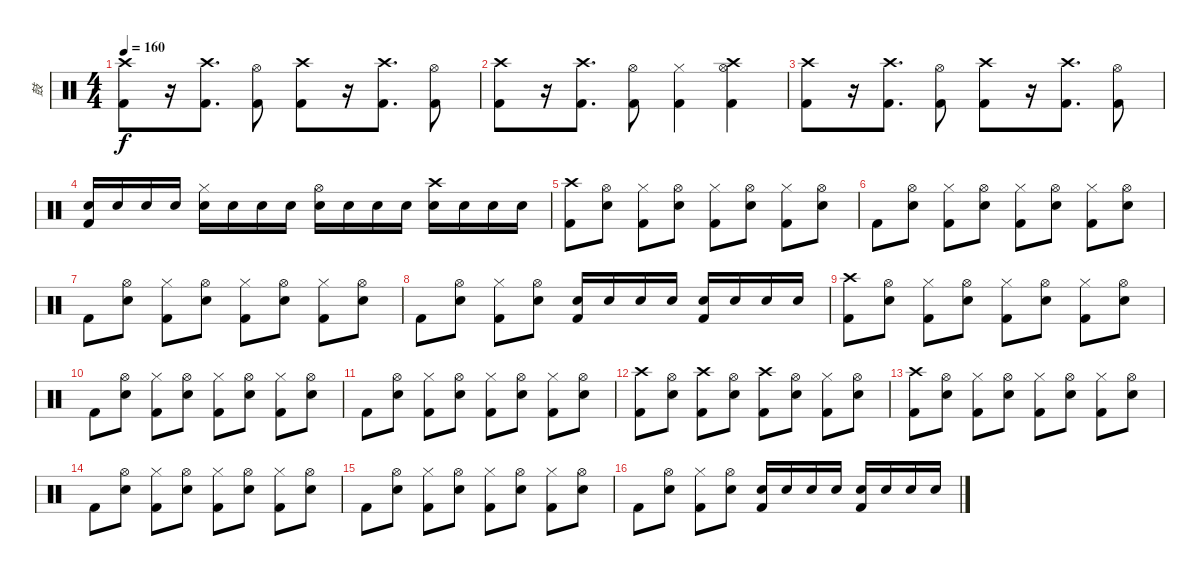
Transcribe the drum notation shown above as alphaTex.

\track ("鼓" "鼓") {instrument percussion}
\staff {score}
\articulation defaults
\ts (4 4)
\tempo 160
\clef neutral
\ks c
("Crash high (hit)" "Kick (hit) 2").8{dy f} r.16 ("Crash high (hit)" "Kick (hit) 2").8{d} ("Hi-Hat (open)" "Kick (hit) 2").8 ("Crash high (hit)" "Kick (hit) 2").8 r.16 ("Crash high (hit)" "Kick (hit) 2").8{d} ("Hi-Hat (open)" "Kick (hit) 2").8 |
("Crash high (hit)" "Kick (hit) 2").8 r.16 ("Crash high (hit)" "Kick (hit) 2").8{d} ("Hi-Hat (open)" "Kick (hit) 2").8 ("Hi-Hat (closed)" "Kick (hit) 2").4 ("Crash high (hit)" "Hi-Hat (open)" "Kick (hit) 2").4 |
("Crash high (hit)" "Kick (hit) 2").8 r.16 ("Crash high (hit)" "Kick (hit) 2").8{d} ("Hi-Hat (open)" "Kick (hit) 2").8 ("Crash high (hit)" "Kick (hit) 2").8 r.16 ("Crash high (hit)" "Kick (hit) 2").8{d} ("Hi-Hat (open)" "Kick (hit) 2").8 |
("Electric Snare (hit)" "Kick (hit) 2").16 "Electric Snare (hit)".16 "Electric Snare (hit)".16 "Electric Snare (hit)".16 ("Hi-Hat (closed)" "Electric Snare (hit)").16 "Electric Snare (hit)".16 "Electric Snare (hit)".16 "Electric Snare (hit)".16 ("Hi-Hat (open)" "Electric Snare (hit)").16 "Electric Snare (hit)".16 "Electric Snare (hit)".16 "Electric Snare (hit)".16 ("Crash high (hit)" "Electric Snare (hit)").16 "Electric Snare (hit)".16 "Electric Snare (hit)".16 "Electric Snare (hit)".16 |
("Crash high (hit)" "Kick (hit) 2").8 ("Hi-Hat (open)" "Electric Snare (hit)").8 ("Hi-Hat (closed)" "Kick (hit) 2").8 ("Hi-Hat (open)" "Electric Snare (hit)").8 ("Hi-Hat (closed)" "Kick (hit) 2").8 ("Hi-Hat (open)" "Electric Snare (hit)").8 ("Hi-Hat (closed)" "Kick (hit) 2").8 ("Hi-Hat (open)" "Electric Snare (hit)").8 |
"Kick (hit) 2".8 ("Hi-Hat (open)" "Electric Snare (hit)").8 ("Hi-Hat (closed)" "Kick (hit) 2").8 ("Hi-Hat (open)" "Electric Snare (hit)").8 ("Hi-Hat (closed)" "Kick (hit) 2").8 ("Hi-Hat (open)" "Electric Snare (hit)").8 ("Hi-Hat (closed)" "Kick (hit) 2").8 ("Hi-Hat (open)" "Electric Snare (hit)").8 |
"Kick (hit) 2".8 ("Hi-Hat (open)" "Electric Snare (hit)").8 ("Hi-Hat (closed)" "Kick (hit) 2").8 ("Hi-Hat (open)" "Electric Snare (hit)").8 ("Hi-Hat (closed)" "Kick (hit) 2").8 ("Hi-Hat (open)" "Electric Snare (hit)").8 ("Hi-Hat (closed)" "Kick (hit) 2").8 ("Hi-Hat (open)" "Electric Snare (hit)").8 |
"Kick (hit) 2".8 ("Hi-Hat (open)" "Electric Snare (hit)").8 ("Hi-Hat (closed)" "Kick (hit) 2").8 ("Hi-Hat (open)" "Electric Snare (hit)").8 ("Electric Snare (hit)" "Kick (hit) 2").16 "Electric Snare (hit)".16 "Electric Snare (hit)".16 "Electric Snare (hit)".16 ("Electric Snare (hit)" "Kick (hit) 2").16 "Electric Snare (hit)".16 "Electric Snare (hit)".16 "Electric Snare (hit)".16 |
("Crash high (hit)" "Kick (hit) 2").8 ("Hi-Hat (open)" "Electric Snare (hit)").8 ("Hi-Hat (closed)" "Kick (hit) 2").8 ("Hi-Hat (open)" "Electric Snare (hit)").8 ("Hi-Hat (closed)" "Kick (hit) 2").8 ("Hi-Hat (open)" "Electric Snare (hit)").8 ("Hi-Hat (closed)" "Kick (hit) 2").8 ("Hi-Hat (open)" "Electric Snare (hit)").8 |
"Kick (hit) 2".8 ("Hi-Hat (open)" "Electric Snare (hit)").8 ("Hi-Hat (closed)" "Kick (hit) 2").8 ("Hi-Hat (open)" "Electric Snare (hit)").8 ("Hi-Hat (closed)" "Kick (hit) 2").8 ("Hi-Hat (open)" "Electric Snare (hit)").8 ("Hi-Hat (closed)" "Kick (hit) 2").8 ("Hi-Hat (open)" "Electric Snare (hit)").8 |
"Kick (hit) 2".8 ("Hi-Hat (open)" "Electric Snare (hit)").8 ("Hi-Hat (closed)" "Kick (hit) 2").8 ("Hi-Hat (open)" "Electric Snare (hit)").8 ("Hi-Hat (closed)" "Kick (hit) 2").8 ("Hi-Hat (open)" "Electric Snare (hit)").8 ("Hi-Hat (closed)" "Kick (hit) 2").8 ("Hi-Hat (open)" "Electric Snare (hit)").8 |
("Crash high (hit)" "Kick (hit) 2").8 ("Hi-Hat (open)" "Electric Snare (hit)").8 ("Crash high (hit)" "Kick (hit) 2").8 ("Hi-Hat (open)" "Electric Snare (hit)").8 ("Crash high (hit)" "Kick (hit) 2").8 ("Hi-Hat (open)" "Electric Snare (hit)").8 ("Hi-Hat (closed)" "Kick (hit) 2").8 ("Hi-Hat (open)" "Electric Snare (hit)").8 |
("Crash high (hit)" "Kick (hit) 2").8 ("Hi-Hat (open)" "Electric Snare (hit)").8 ("Hi-Hat (closed)" "Kick (hit) 2").8 ("Hi-Hat (open)" "Electric Snare (hit)").8 ("Hi-Hat (closed)" "Kick (hit) 2").8 ("Hi-Hat (open)" "Electric Snare (hit)").8 ("Hi-Hat (closed)" "Kick (hit) 2").8 ("Hi-Hat (open)" "Electric Snare (hit)").8 |
"Kick (hit) 2".8 ("Hi-Hat (open)" "Electric Snare (hit)").8 ("Hi-Hat (closed)" "Kick (hit) 2").8 ("Hi-Hat (open)" "Electric Snare (hit)").8 ("Hi-Hat (closed)" "Kick (hit) 2").8 ("Hi-Hat (open)" "Electric Snare (hit)").8 ("Hi-Hat (closed)" "Kick (hit) 2").8 ("Hi-Hat (open)" "Electric Snare (hit)").8 |
"Kick (hit) 2".8 ("Hi-Hat (open)" "Electric Snare (hit)").8 ("Hi-Hat (closed)" "Kick (hit) 2").8 ("Hi-Hat (open)" "Electric Snare (hit)").8 ("Hi-Hat (closed)" "Kick (hit) 2").8 ("Hi-Hat (open)" "Electric Snare (hit)").8 ("Hi-Hat (closed)" "Kick (hit) 2").8 ("Hi-Hat (open)" "Electric Snare (hit)").8 |
"Kick (hit) 2".8 ("Hi-Hat (open)" "Electric Snare (hit)").8 ("Hi-Hat (closed)" "Kick (hit) 2").8 ("Hi-Hat (open)" "Electric Snare (hit)").8 ("Electric Snare (hit)" "Kick (hit) 2").16 "Electric Snare (hit)".16 "Electric Snare (hit)".16 "Electric Snare (hit)".16 ("Electric Snare (hit)" "Kick (hit) 2").16 "Electric Snare (hit)".16 "Electric Snare (hit)".16 "Electric Snare (hit)".16
